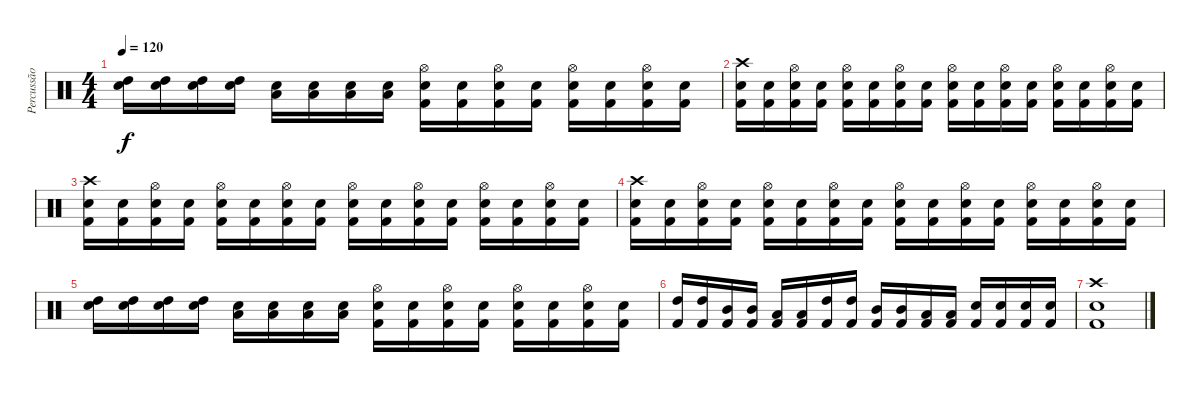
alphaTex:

\track ("Percussão" "Percussão") {instrument percussion}
\staff {score}
\articulation defaults
\ts (4 4)
\tempo 120
\clef neutral
\ks c
("High Tom (hit)" "Electric Snare (hit)").16{dy f} ("High Tom (hit)" "Electric Snare (hit)").16 ("High Tom (hit)" "Electric Snare (hit)").16 ("High Tom (hit)" "Electric Snare (hit)").16 ("Low Tom (hit)" "Electric Snare (hit)").16 ("Low Tom (hit)" "Electric Snare (hit)").16 ("Low Tom (hit)" "Electric Snare (hit)").16 ("Low Tom (hit)" "Electric Snare (hit)").16 ("Kick (hit) 2" "Electric Snare (hit)" "Hi-Hat (open)").16 ("Kick (hit) 2" "Electric Snare (hit)").16 ("Kick (hit) 2" "Electric Snare (hit)" "Hi-Hat (open)").16 ("Kick (hit) 2" "Electric Snare (hit)").16 ("Kick (hit) 2" "Electric Snare (hit)" "Hi-Hat (open)").16 ("Kick (hit) 2" "Electric Snare (hit)").16 ("Kick (hit) 2" "Electric Snare (hit)" "Hi-Hat (open)").16 ("Kick (hit) 2" "Electric Snare (hit)").16 |
("Crash high (hit)" "Kick (hit) 2" "Electric Snare (hit)").16 ("Kick (hit) 2" "Electric Snare (hit)").16 ("Kick (hit) 2" "Electric Snare (hit)" "Hi-Hat (open)").16 ("Kick (hit) 2" "Electric Snare (hit)").16 ("Kick (hit) 2" "Electric Snare (hit)" "Hi-Hat (open)").16 ("Kick (hit) 2" "Electric Snare (hit)").16 ("Kick (hit) 2" "Electric Snare (hit)" "Hi-Hat (open)").16 ("Kick (hit) 2" "Electric Snare (hit)").16 ("Kick (hit) 2" "Electric Snare (hit)" "Hi-Hat (open)").16 ("Kick (hit) 2" "Electric Snare (hit)").16 ("Kick (hit) 2" "Electric Snare (hit)" "Hi-Hat (open)").16 ("Kick (hit) 2" "Electric Snare (hit)").16 ("Kick (hit) 2" "Electric Snare (hit)" "Hi-Hat (open)").16 ("Kick (hit) 2" "Electric Snare (hit)").16 ("Kick (hit) 2" "Electric Snare (hit)" "Hi-Hat (open)").16 ("Kick (hit) 2" "Electric Snare (hit)").16 |
("Crash high (hit)" "Kick (hit) 2" "Electric Snare (hit)").16 ("Kick (hit) 2" "Electric Snare (hit)").16 ("Kick (hit) 2" "Electric Snare (hit)" "Hi-Hat (open)").16 ("Kick (hit) 2" "Electric Snare (hit)").16 ("Kick (hit) 2" "Electric Snare (hit)" "Hi-Hat (open)").16 ("Kick (hit) 2" "Electric Snare (hit)").16 ("Kick (hit) 2" "Electric Snare (hit)" "Hi-Hat (open)").16 ("Kick (hit) 2" "Electric Snare (hit)").16 ("Kick (hit) 2" "Electric Snare (hit)" "Hi-Hat (open)").16 ("Kick (hit) 2" "Electric Snare (hit)").16 ("Kick (hit) 2" "Electric Snare (hit)" "Hi-Hat (open)").16 ("Kick (hit) 2" "Electric Snare (hit)").16 ("Kick (hit) 2" "Electric Snare (hit)" "Hi-Hat (open)").16 ("Kick (hit) 2" "Electric Snare (hit)").16 ("Kick (hit) 2" "Electric Snare (hit)" "Hi-Hat (open)").16 ("Kick (hit) 2" "Electric Snare (hit)").16 |
("Crash high (hit)" "Kick (hit) 2" "Electric Snare (hit)").16 ("Kick (hit) 2" "Electric Snare (hit)").16 ("Kick (hit) 2" "Electric Snare (hit)" "Hi-Hat (open)").16 ("Kick (hit) 2" "Electric Snare (hit)").16 ("Kick (hit) 2" "Electric Snare (hit)" "Hi-Hat (open)").16 ("Kick (hit) 2" "Electric Snare (hit)").16 ("Kick (hit) 2" "Electric Snare (hit)" "Hi-Hat (open)").16 ("Kick (hit) 2" "Electric Snare (hit)").16 ("Kick (hit) 2" "Electric Snare (hit)" "Hi-Hat (open)").16 ("Kick (hit) 2" "Electric Snare (hit)").16 ("Kick (hit) 2" "Electric Snare (hit)" "Hi-Hat (open)").16 ("Kick (hit) 2" "Electric Snare (hit)").16 ("Kick (hit) 2" "Electric Snare (hit)" "Hi-Hat (open)").16 ("Kick (hit) 2" "Electric Snare (hit)").16 ("Kick (hit) 2" "Electric Snare (hit)" "Hi-Hat (open)").16 ("Kick (hit) 2" "Electric Snare (hit)").16 |
("High Tom (hit)" "Electric Snare (hit)").16 ("High Tom (hit)" "Electric Snare (hit)").16 ("High Tom (hit)" "Electric Snare (hit)").16 ("High Tom (hit)" "Electric Snare (hit)").16 ("Low Tom (hit)" "Electric Snare (hit)").16 ("Low Tom (hit)" "Electric Snare (hit)").16 ("Low Tom (hit)" "Electric Snare (hit)").16 ("Low Tom (hit)" "Electric Snare (hit)").16 ("Kick (hit) 2" "Electric Snare (hit)" "Hi-Hat (open)").16 ("Kick (hit) 2" "Electric Snare (hit)").16 ("Kick (hit) 2" "Electric Snare (hit)" "Hi-Hat (open)").16 ("Kick (hit) 2" "Electric Snare (hit)").16 ("Kick (hit) 2" "Electric Snare (hit)" "Hi-Hat (open)").16 ("Kick (hit) 2" "Electric Snare (hit)").16 ("Kick (hit) 2" "Electric Snare (hit)" "Hi-Hat (open)").16 ("Kick (hit) 2" "Electric Snare (hit)").16 |
("Kick (hit) 2" "High Tom (hit)").16 ("Kick (hit) 2" "High Tom (hit)").16 ("Kick (hit) 2" "Mid Tom (hit)").16 ("Kick (hit) 2" "Mid Tom (hit)").16 ("Kick (hit) 2" "Low Tom (hit)").16 ("Kick (hit) 2" "Low Tom (hit)").16 ("Kick (hit) 2" "High Tom (hit)").16 ("Kick (hit) 2" "High Tom (hit)").16 ("Kick (hit) 2" "Mid Tom (hit)").16 ("Kick (hit) 2" "Mid Tom (hit)").16 ("Kick (hit) 2" "Low Tom (hit)").16 ("Kick (hit) 2" "Low Tom (hit)").16 ("Kick (hit) 2" "Electric Snare (hit)").16 ("Kick (hit) 2" "Electric Snare (hit)").16 ("Kick (hit) 2" "Electric Snare (hit)").16 ("Kick (hit) 2" "Electric Snare (hit)").16 |
("Kick (hit) 2" "Crash high (hit)" "Electric Snare (hit)").1
